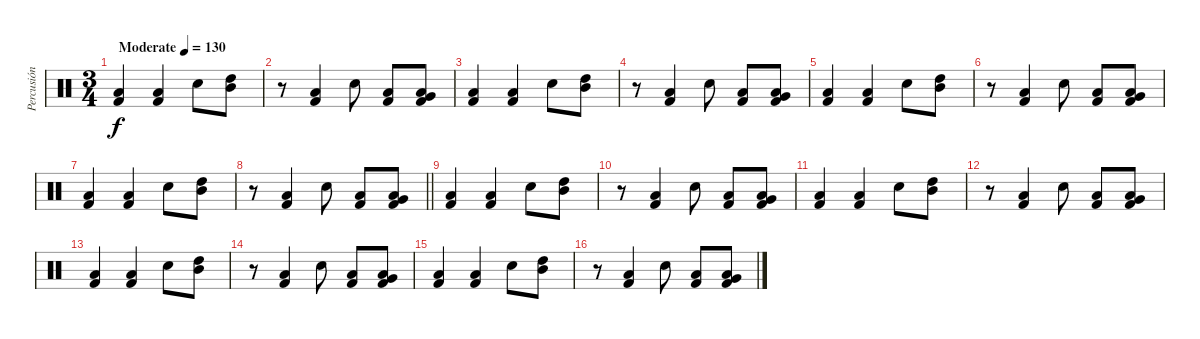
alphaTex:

\track ("Percusión" "Percusión") {instrument percussion}
\staff {score}
\articulation defaults
\ts (3 4)
\tempo (130 "Moderate")
\clef neutral
\ks c
("Kick (hit) 2" "Low Floor Tom (hit)").4{dy f} ("Kick (hit) 2" "Low Floor Tom (hit)").4 "Snare (hit) 2".8 ("Mid Tom (hit)" "High Tom (hit)").8 |
r.8 ("Kick (hit) 2" "Low Floor Tom (hit)").4 "Snare (hit) 2".8 ("Kick (hit) 2" "Low Floor Tom (hit)").8 ("Kick (hit) 2" "Very Low Tom (hit)" "Low Floor Tom (hit)").8 |
("Kick (hit) 2" "Low Floor Tom (hit)").4 ("Kick (hit) 2" "Low Floor Tom (hit)").4 "Snare (hit) 2".8 ("Mid Tom (hit)" "High Tom (hit)").8 |
r.8 ("Kick (hit) 2" "Low Floor Tom (hit)").4 "Snare (hit) 2".8 ("Kick (hit) 2" "Low Floor Tom (hit)").8 ("Kick (hit) 2" "Very Low Tom (hit)" "Low Floor Tom (hit)").8 |
("Kick (hit) 2" "Low Floor Tom (hit)").4 ("Kick (hit) 2" "Low Floor Tom (hit)").4 "Snare (hit) 2".8 ("Mid Tom (hit)" "High Tom (hit)").8 |
r.8 ("Kick (hit) 2" "Low Floor Tom (hit)").4 "Snare (hit) 2".8 ("Kick (hit) 2" "Low Floor Tom (hit)").8 ("Kick (hit) 2" "Very Low Tom (hit)" "Low Floor Tom (hit)").8 |
("Kick (hit) 2" "Low Floor Tom (hit)").4 ("Kick (hit) 2" "Low Floor Tom (hit)").4 "Snare (hit) 2".8 ("Mid Tom (hit)" "High Tom (hit)").8 |
\barLineRight lightlight
r.8 ("Kick (hit) 2" "Low Floor Tom (hit)").4 "Snare (hit) 2".8 ("Kick (hit) 2" "Low Floor Tom (hit)").8 ("Kick (hit) 2" "Very Low Tom (hit)" "Low Floor Tom (hit)").8 |
("Kick (hit) 2" "Low Floor Tom (hit)").4 ("Kick (hit) 2" "Low Floor Tom (hit)").4 "Snare (hit) 2".8 ("Mid Tom (hit)" "High Tom (hit)").8 |
r.8 ("Kick (hit) 2" "Low Floor Tom (hit)").4 "Snare (hit) 2".8 ("Kick (hit) 2" "Low Floor Tom (hit)").8 ("Kick (hit) 2" "Very Low Tom (hit)" "Low Floor Tom (hit)").8 |
("Kick (hit) 2" "Low Floor Tom (hit)").4 ("Kick (hit) 2" "Low Floor Tom (hit)").4 "Snare (hit) 2".8 ("Mid Tom (hit)" "High Tom (hit)").8 |
r.8 ("Kick (hit) 2" "Low Floor Tom (hit)").4 "Snare (hit) 2".8 ("Kick (hit) 2" "Low Floor Tom (hit)").8 ("Kick (hit) 2" "Very Low Tom (hit)" "Low Floor Tom (hit)").8 |
("Kick (hit) 2" "Low Floor Tom (hit)").4 ("Kick (hit) 2" "Low Floor Tom (hit)").4 "Snare (hit) 2".8 ("Mid Tom (hit)" "High Tom (hit)").8 |
r.8 ("Kick (hit) 2" "Low Floor Tom (hit)").4 "Snare (hit) 2".8 ("Kick (hit) 2" "Low Floor Tom (hit)").8 ("Kick (hit) 2" "Very Low Tom (hit)" "Low Floor Tom (hit)").8 |
("Kick (hit) 2" "Low Floor Tom (hit)").4 ("Kick (hit) 2" "Low Floor Tom (hit)").4 "Snare (hit) 2".8 ("Mid Tom (hit)" "High Tom (hit)").8 |
r.8 ("Kick (hit) 2" "Low Floor Tom (hit)").4 "Snare (hit) 2".8 ("Kick (hit) 2" "Low Floor Tom (hit)").8 ("Kick (hit) 2" "Very Low Tom (hit)" "Low Floor Tom (hit)").8
